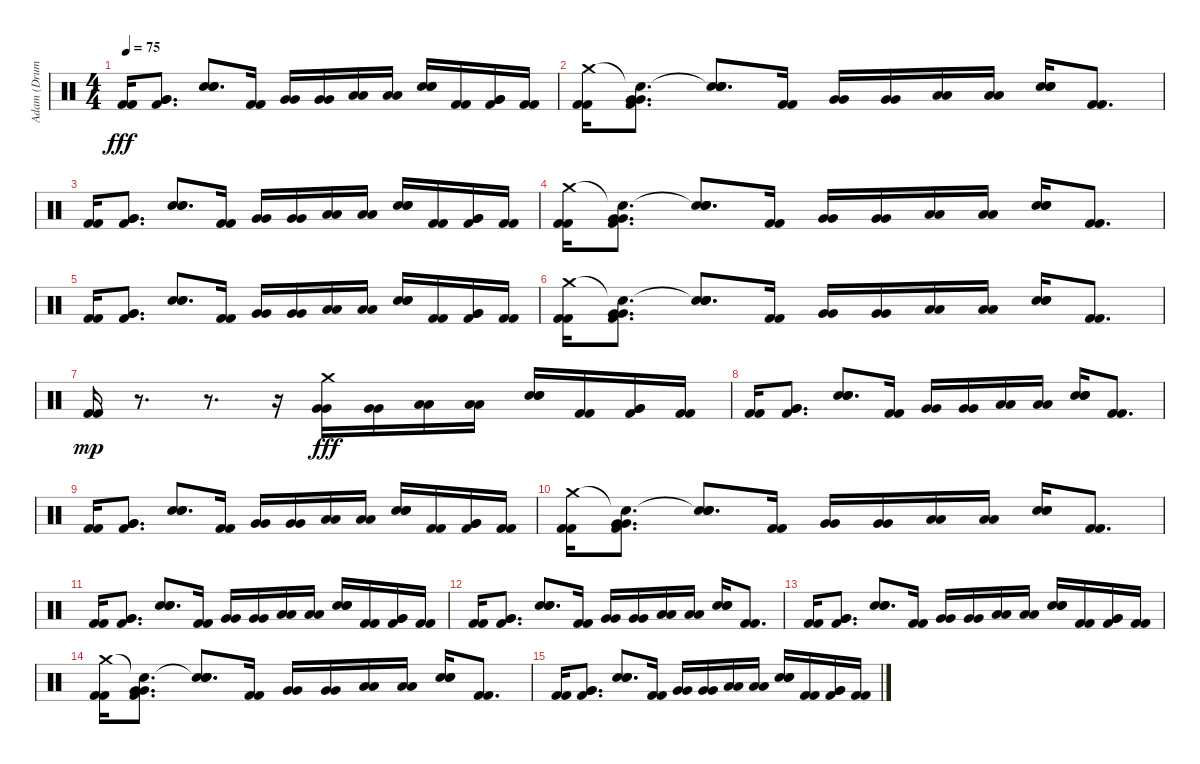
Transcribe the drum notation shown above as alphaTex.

\track ("Adam (Drums)" "Adam (Drum") {instrument percussion}
\staff {score}
\articulation defaults
\ts (4 4)
\tempo 75
\clef neutral
\ks c
("Kick (hit) 2" "Kick (hit) 2").16{dy fff} ("Very Low Tom (hit)" "Very Low Tom (hit)" "Kick (hit) 2").8{d} ("Hand Clap (hit)" "Hand Clap (hit)" "Hand Clap (hit)").8{d} ("Kick (hit) 2" "Kick (hit) 2").16 ("Very Low Tom (hit)" "Very Low Tom (hit)").16 ("Very Low Tom (hit)" "Very Low Tom (hit)").16 ("Low Floor Tom (hit)" "Low Floor Tom (hit)").16 ("Low Floor Tom (hit)" "Low Floor Tom (hit)").16 ("Hand Clap (hit)" "Hand Clap (hit)" "Hand Clap (hit)").16 ("Kick (hit) 2" "Kick (hit) 2").16 ("Very Low Tom (hit)" "Very Low Tom (hit)" "Kick (hit) 2").16 ("Kick (hit) 2" "Kick (hit) 2").16 |
("Crash medium (hit)" "Kick (hit) 2" "Kick (hit) 2").16 ("Snare (hit)"{t} "Very Low Tom (hit)" "Very Low Tom (hit)" "Kick (hit) 2").8{d} ("Snare (hit)"{t} "Hand Clap (hit)" "Hand Clap (hit)" "Hand Clap (hit)").8{d} ("Kick (hit) 2" "Kick (hit) 2").16 ("Very Low Tom (hit)" "Very Low Tom (hit)").16 ("Very Low Tom (hit)" "Very Low Tom (hit)").16 ("Low Floor Tom (hit)" "Low Floor Tom (hit)").16 ("Low Floor Tom (hit)" "Low Floor Tom (hit)").16 ("Hand Clap (hit)" "Hand Clap (hit)" "Hand Clap (hit)").16 ("Kick (hit) 2" "Kick (hit) 2").8{d} |
("Kick (hit) 2" "Kick (hit) 2").16 ("Very Low Tom (hit)" "Very Low Tom (hit)" "Kick (hit) 2").8{d} ("Hand Clap (hit)" "Hand Clap (hit)" "Hand Clap (hit)").8{d} ("Kick (hit) 2" "Kick (hit) 2").16 ("Very Low Tom (hit)" "Very Low Tom (hit)").16 ("Very Low Tom (hit)" "Very Low Tom (hit)").16 ("Low Floor Tom (hit)" "Low Floor Tom (hit)").16 ("Low Floor Tom (hit)" "Low Floor Tom (hit)").16 ("Hand Clap (hit)" "Hand Clap (hit)" "Hand Clap (hit)").16 ("Kick (hit) 2" "Kick (hit) 2").16 ("Very Low Tom (hit)" "Very Low Tom (hit)" "Kick (hit) 2").16 ("Kick (hit) 2" "Kick (hit) 2").16 |
("Crash medium (hit)" "Kick (hit) 2" "Kick (hit) 2").16 ("Snare (hit)"{t} "Very Low Tom (hit)" "Very Low Tom (hit)" "Kick (hit) 2").8{d} ("Snare (hit)"{t} "Hand Clap (hit)" "Hand Clap (hit)" "Hand Clap (hit)").8{d} ("Kick (hit) 2" "Kick (hit) 2").16 ("Very Low Tom (hit)" "Very Low Tom (hit)").16 ("Very Low Tom (hit)" "Very Low Tom (hit)").16 ("Low Floor Tom (hit)" "Low Floor Tom (hit)").16 ("Low Floor Tom (hit)" "Low Floor Tom (hit)").16 ("Hand Clap (hit)" "Hand Clap (hit)" "Hand Clap (hit)").16 ("Kick (hit) 2" "Kick (hit) 2").8{d} |
("Kick (hit) 2" "Kick (hit) 2").16 ("Very Low Tom (hit)" "Very Low Tom (hit)" "Kick (hit) 2").8{d} ("Hand Clap (hit)" "Hand Clap (hit)" "Hand Clap (hit)").8{d} ("Kick (hit) 2" "Kick (hit) 2").16 ("Very Low Tom (hit)" "Very Low Tom (hit)").16 ("Very Low Tom (hit)" "Very Low Tom (hit)").16 ("Low Floor Tom (hit)" "Low Floor Tom (hit)").16 ("Low Floor Tom (hit)" "Low Floor Tom (hit)").16 ("Hand Clap (hit)" "Hand Clap (hit)" "Hand Clap (hit)").16 ("Kick (hit) 2" "Kick (hit) 2").16 ("Very Low Tom (hit)" "Very Low Tom (hit)" "Kick (hit) 2").16 ("Kick (hit) 2" "Kick (hit) 2").16 |
("Crash medium (hit)" "Kick (hit) 2" "Kick (hit) 2").16 ("Snare (hit)"{t} "Very Low Tom (hit)" "Very Low Tom (hit)" "Kick (hit) 2").8{d} ("Snare (hit)"{t} "Hand Clap (hit)" "Hand Clap (hit)" "Hand Clap (hit)").8{d} ("Kick (hit) 2" "Kick (hit) 2").16 ("Very Low Tom (hit)" "Very Low Tom (hit)").16 ("Very Low Tom (hit)" "Very Low Tom (hit)").16 ("Low Floor Tom (hit)" "Low Floor Tom (hit)").16 ("Low Floor Tom (hit)" "Low Floor Tom (hit)").16 ("Hand Clap (hit)" "Hand Clap (hit)" "Hand Clap (hit)").16 ("Kick (hit) 2" "Kick (hit) 2").8{d} |
("Kick (hit) 2" "Kick (hit) 2").16{dy mp} r.8{d} r.8{d} r.16 ("Crash medium (hit)" "Very Low Tom (hit)" "Very Low Tom (hit)").16{dy fff} ("Very Low Tom (hit)" "Very Low Tom (hit)").16 ("Low Floor Tom (hit)" "Low Floor Tom (hit)").16 ("Low Floor Tom (hit)" "Low Floor Tom (hit)").16 ("Hand Clap (hit)" "Hand Clap (hit)" "Hand Clap (hit)").16 ("Kick (hit) 2" "Kick (hit) 2").16 ("Very Low Tom (hit)" "Very Low Tom (hit)" "Kick (hit) 2").16 ("Kick (hit) 2" "Kick (hit) 2").16 |
("Kick (hit) 2" "Kick (hit) 2").16 ("Very Low Tom (hit)" "Very Low Tom (hit)" "Kick (hit) 2").8{d} ("Hand Clap (hit)" "Hand Clap (hit)" "Hand Clap (hit)").8{d} ("Kick (hit) 2" "Kick (hit) 2").16 ("Very Low Tom (hit)" "Very Low Tom (hit)").16 ("Very Low Tom (hit)" "Very Low Tom (hit)").16 ("Low Floor Tom (hit)" "Low Floor Tom (hit)").16 ("Low Floor Tom (hit)" "Low Floor Tom (hit)").16 ("Hand Clap (hit)" "Hand Clap (hit)" "Hand Clap (hit)").16 ("Kick (hit) 2" "Kick (hit) 2").8{d} |
("Kick (hit) 2" "Kick (hit) 2").16 ("Very Low Tom (hit)" "Very Low Tom (hit)" "Kick (hit) 2").8{d} ("Hand Clap (hit)" "Hand Clap (hit)" "Hand Clap (hit)").8{d} ("Kick (hit) 2" "Kick (hit) 2").16 ("Very Low Tom (hit)" "Very Low Tom (hit)").16 ("Very Low Tom (hit)" "Very Low Tom (hit)").16 ("Low Floor Tom (hit)" "Low Floor Tom (hit)").16 ("Low Floor Tom (hit)" "Low Floor Tom (hit)").16 ("Hand Clap (hit)" "Hand Clap (hit)" "Hand Clap (hit)").16 ("Kick (hit) 2" "Kick (hit) 2").16 ("Very Low Tom (hit)" "Very Low Tom (hit)" "Kick (hit) 2").16 ("Kick (hit) 2" "Kick (hit) 2").16 |
("Crash medium (hit)" "Kick (hit) 2" "Kick (hit) 2").16 ("Snare (hit)"{t} "Very Low Tom (hit)" "Very Low Tom (hit)" "Kick (hit) 2").8{d} ("Snare (hit)"{t} "Hand Clap (hit)" "Hand Clap (hit)" "Hand Clap (hit)").8{d} ("Kick (hit) 2" "Kick (hit) 2").16 ("Very Low Tom (hit)" "Very Low Tom (hit)").16 ("Very Low Tom (hit)" "Very Low Tom (hit)").16 ("Low Floor Tom (hit)" "Low Floor Tom (hit)").16 ("Low Floor Tom (hit)" "Low Floor Tom (hit)").16 ("Hand Clap (hit)" "Hand Clap (hit)" "Hand Clap (hit)").16 ("Kick (hit) 2" "Kick (hit) 2").8{d} |
("Kick (hit) 2" "Kick (hit) 2").16 ("Very Low Tom (hit)" "Very Low Tom (hit)" "Kick (hit) 2").8{d} ("Hand Clap (hit)" "Hand Clap (hit)" "Hand Clap (hit)").8{d} ("Kick (hit) 2" "Kick (hit) 2").16 ("Very Low Tom (hit)" "Very Low Tom (hit)").16 ("Very Low Tom (hit)" "Very Low Tom (hit)").16 ("Low Floor Tom (hit)" "Low Floor Tom (hit)").16 ("Low Floor Tom (hit)" "Low Floor Tom (hit)").16 ("Hand Clap (hit)" "Hand Clap (hit)" "Hand Clap (hit)").16 ("Kick (hit) 2" "Kick (hit) 2").16 ("Very Low Tom (hit)" "Very Low Tom (hit)" "Kick (hit) 2").16 ("Kick (hit) 2" "Kick (hit) 2").16 |
("Kick (hit) 2" "Kick (hit) 2").16 ("Very Low Tom (hit)" "Very Low Tom (hit)" "Kick (hit) 2").8{d} ("Hand Clap (hit)" "Hand Clap (hit)" "Hand Clap (hit)").8{d} ("Kick (hit) 2" "Kick (hit) 2").16 ("Very Low Tom (hit)" "Very Low Tom (hit)").16 ("Very Low Tom (hit)" "Very Low Tom (hit)").16 ("Low Floor Tom (hit)" "Low Floor Tom (hit)").16 ("Low Floor Tom (hit)" "Low Floor Tom (hit)").16 ("Hand Clap (hit)" "Hand Clap (hit)" "Hand Clap (hit)").16 ("Kick (hit) 2" "Kick (hit) 2").8{d} |
("Kick (hit) 2" "Kick (hit) 2").16 ("Very Low Tom (hit)" "Very Low Tom (hit)" "Kick (hit) 2").8{d} ("Hand Clap (hit)" "Hand Clap (hit)" "Hand Clap (hit)").8{d} ("Kick (hit) 2" "Kick (hit) 2").16 ("Very Low Tom (hit)" "Very Low Tom (hit)").16 ("Very Low Tom (hit)" "Very Low Tom (hit)").16 ("Low Floor Tom (hit)" "Low Floor Tom (hit)").16 ("Low Floor Tom (hit)" "Low Floor Tom (hit)").16 ("Hand Clap (hit)" "Hand Clap (hit)" "Hand Clap (hit)").16 ("Kick (hit) 2" "Kick (hit) 2").16 ("Very Low Tom (hit)" "Very Low Tom (hit)" "Kick (hit) 2").16 ("Kick (hit) 2" "Kick (hit) 2").16 |
("Crash medium (hit)" "Kick (hit) 2" "Kick (hit) 2").16 ("Snare (hit)"{t} "Very Low Tom (hit)" "Very Low Tom (hit)" "Kick (hit) 2").8{d} ("Snare (hit)"{t} "Hand Clap (hit)" "Hand Clap (hit)" "Hand Clap (hit)").8{d} ("Kick (hit) 2" "Kick (hit) 2").16 ("Very Low Tom (hit)" "Very Low Tom (hit)").16 ("Very Low Tom (hit)" "Very Low Tom (hit)").16 ("Low Floor Tom (hit)" "Low Floor Tom (hit)").16 ("Low Floor Tom (hit)" "Low Floor Tom (hit)").16 ("Hand Clap (hit)" "Hand Clap (hit)" "Hand Clap (hit)").16 ("Kick (hit) 2" "Kick (hit) 2").8{d} |
("Kick (hit) 2" "Kick (hit) 2").16 ("Very Low Tom (hit)" "Very Low Tom (hit)" "Kick (hit) 2").8{d} ("Hand Clap (hit)" "Hand Clap (hit)" "Hand Clap (hit)").8{d} ("Kick (hit) 2" "Kick (hit) 2").16 ("Very Low Tom (hit)" "Very Low Tom (hit)").16 ("Very Low Tom (hit)" "Very Low Tom (hit)").16 ("Low Floor Tom (hit)" "Low Floor Tom (hit)").16 ("Low Floor Tom (hit)" "Low Floor Tom (hit)").16 ("Hand Clap (hit)" "Hand Clap (hit)" "Hand Clap (hit)").16 ("Kick (hit) 2" "Kick (hit) 2").16 ("Very Low Tom (hit)" "Very Low Tom (hit)" "Kick (hit) 2").16 ("Kick (hit) 2" "Kick (hit) 2").16
